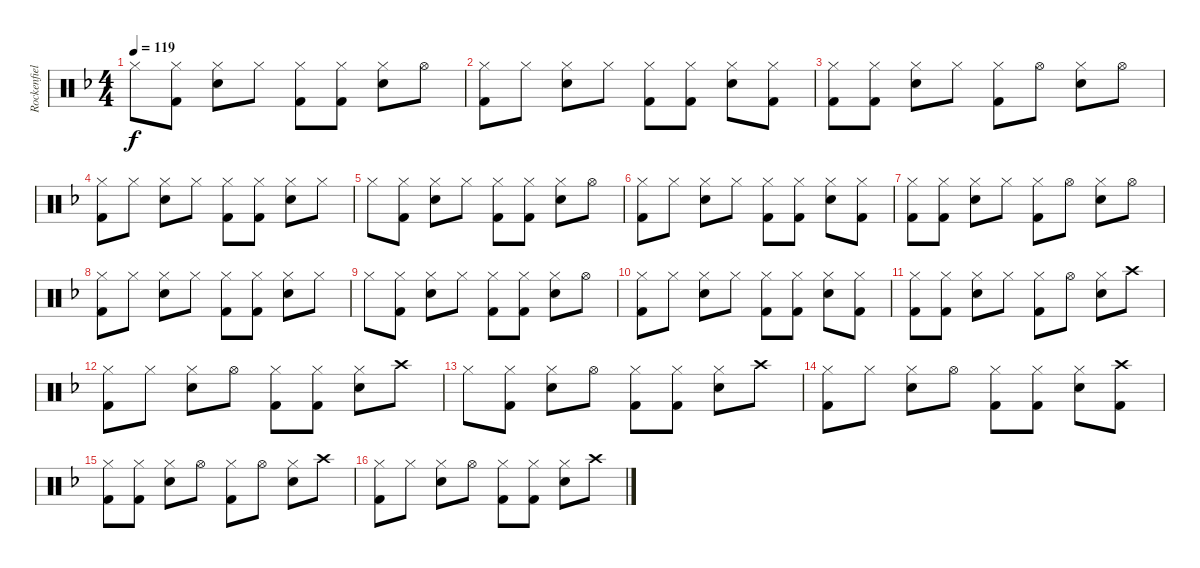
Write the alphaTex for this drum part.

\track ("Rockenfield" "Rockenfiel") {instrument percussion}
\staff {score}
\articulation defaults
\ts (4 4)
\tempo 119
\clef neutral
\ks dminor "Hi-Hat (closed)".8{dy f}
("Hi-Hat (closed)" "Kick (hit) 2").8 ("Hi-Hat (closed)" "Snare (hit) 2").8 "Hi-Hat (closed)".8 ("Hi-Hat (closed)" "Kick (hit) 2").8 ("Hi-Hat (closed)" "Kick (hit) 2").8 ("Hi-Hat (closed)" "Snare (hit) 2").8 "Hi-Hat (open)".8 |
("Hi-Hat (closed)" "Kick (hit) 2").8 "Hi-Hat (closed)".8 ("Hi-Hat (closed)" "Snare (hit) 2").8 "Hi-Hat (closed)".8 ("Hi-Hat (closed)" "Kick (hit) 2").8 ("Hi-Hat (closed)" "Kick (hit) 2").8 ("Hi-Hat (closed)" "Snare (hit) 2").8 ("Hi-Hat (closed)" "Kick (hit) 2").8 |
("Hi-Hat (closed)" "Kick (hit) 2").8 ("Hi-Hat (closed)" "Kick (hit) 2").8 ("Hi-Hat (closed)" "Snare (hit) 2").8 "Hi-Hat (closed)".8 ("Hi-Hat (closed)" "Kick (hit) 2").8 "Hi-Hat (open)".8 ("Hi-Hat (closed)" "Snare (hit) 2").8 "Hi-Hat (open)".8 |
("Hi-Hat (closed)" "Kick (hit) 2").8 "Hi-Hat (closed)".8 ("Hi-Hat (closed)" "Snare (hit) 2").8 "Hi-Hat (closed)".8 ("Hi-Hat (closed)" "Kick (hit) 2").8 ("Hi-Hat (closed)" "Kick (hit) 2").8 ("Hi-Hat (closed)" "Snare (hit) 2").8 "Hi-Hat (closed)".8 |
"Hi-Hat (closed)".8 ("Hi-Hat (closed)" "Kick (hit) 2").8 ("Hi-Hat (closed)" "Snare (hit) 2").8 "Hi-Hat (closed)".8 ("Hi-Hat (closed)" "Kick (hit) 2").8 ("Hi-Hat (closed)" "Kick (hit) 2").8 ("Hi-Hat (closed)" "Snare (hit) 2").8 "Hi-Hat (open)".8 |
("Hi-Hat (closed)" "Kick (hit) 2").8 "Hi-Hat (closed)".8 ("Hi-Hat (closed)" "Snare (hit) 2").8 "Hi-Hat (closed)".8 ("Hi-Hat (closed)" "Kick (hit) 2").8 ("Hi-Hat (closed)" "Kick (hit) 2").8 ("Hi-Hat (closed)" "Snare (hit) 2").8 ("Hi-Hat (closed)" "Kick (hit) 2").8 |
("Hi-Hat (closed)" "Kick (hit) 2").8 ("Hi-Hat (closed)" "Kick (hit) 2").8 ("Hi-Hat (closed)" "Snare (hit) 2").8 "Hi-Hat (closed)".8 ("Hi-Hat (closed)" "Kick (hit) 2").8 "Hi-Hat (open)".8 ("Hi-Hat (closed)" "Snare (hit) 2").8 "Hi-Hat (open)".8 |
("Hi-Hat (closed)" "Kick (hit) 2").8 "Hi-Hat (closed)".8 ("Hi-Hat (closed)" "Snare (hit) 2").8 "Hi-Hat (closed)".8 ("Hi-Hat (closed)" "Kick (hit) 2").8 ("Hi-Hat (closed)" "Kick (hit) 2").8 ("Hi-Hat (closed)" "Snare (hit) 2").8 "Hi-Hat (closed)".8 |
"Hi-Hat (closed)".8 ("Hi-Hat (closed)" "Kick (hit) 2").8 ("Hi-Hat (closed)" "Snare (hit) 2").8 "Hi-Hat (closed)".8 ("Hi-Hat (closed)" "Kick (hit) 2").8 ("Hi-Hat (closed)" "Kick (hit) 2").8 ("Hi-Hat (closed)" "Snare (hit) 2").8 "Hi-Hat (open)".8 |
("Hi-Hat (closed)" "Kick (hit) 2").8 "Hi-Hat (closed)".8 ("Hi-Hat (closed)" "Snare (hit) 2").8 "Hi-Hat (closed)".8 ("Hi-Hat (closed)" "Kick (hit) 2").8 ("Hi-Hat (closed)" "Kick (hit) 2").8 ("Hi-Hat (closed)" "Snare (hit) 2").8 ("Hi-Hat (closed)" "Kick (hit) 2").8 |
("Hi-Hat (closed)" "Kick (hit) 2").8 ("Hi-Hat (closed)" "Kick (hit) 2").8 ("Hi-Hat (closed)" "Snare (hit) 2").8 "Hi-Hat (closed)".8 ("Hi-Hat (closed)" "Kick (hit) 2").8 "Hi-Hat (open)".8 ("Hi-Hat (closed)" "Snare (hit) 2").8 "Crash high (hit)".8 |
("Hi-Hat (closed)" "Kick (hit) 2").8 "Hi-Hat (closed)".8 ("Hi-Hat (closed)" "Snare (hit) 2").8 "Hi-Hat (open)".8 ("Hi-Hat (closed)" "Kick (hit) 2").8 ("Hi-Hat (closed)" "Kick (hit) 2").8 ("Hi-Hat (closed)" "Snare (hit) 2").8 "Crash high (hit)".8 |
"Hi-Hat (closed)".8 ("Hi-Hat (closed)" "Kick (hit) 2").8 ("Hi-Hat (closed)" "Snare (hit) 2").8 "Hi-Hat (open)".8 ("Hi-Hat (closed)" "Kick (hit) 2").8 ("Hi-Hat (closed)" "Kick (hit) 2").8 ("Hi-Hat (closed)" "Snare (hit) 2").8 "Crash high (hit)".8 |
("Hi-Hat (closed)" "Kick (hit) 2").8 "Hi-Hat (closed)".8 ("Hi-Hat (closed)" "Snare (hit) 2").8 "Hi-Hat (open)".8 ("Hi-Hat (closed)" "Kick (hit) 2").8 ("Hi-Hat (closed)" "Kick (hit) 2").8 ("Hi-Hat (closed)" "Snare (hit) 2").8 ("Crash high (hit)" "Kick (hit) 2").8 |
("Hi-Hat (closed)" "Kick (hit) 2").8 ("Hi-Hat (closed)" "Kick (hit) 2").8 ("Hi-Hat (closed)" "Snare (hit) 2").8 "Hi-Hat (open)".8 ("Hi-Hat (closed)" "Kick (hit) 2").8 "Hi-Hat (open)".8 ("Hi-Hat (closed)" "Snare (hit) 2").8 "Crash high (hit)".8 |
("Hi-Hat (closed)" "Kick (hit) 2").8 "Hi-Hat (closed)".8 ("Hi-Hat (closed)" "Snare (hit) 2").8 "Hi-Hat (open)".8 ("Hi-Hat (closed)" "Kick (hit) 2").8 ("Hi-Hat (closed)" "Kick (hit) 2").8 ("Hi-Hat (closed)" "Snare (hit) 2").8 "Crash high (hit)".8
